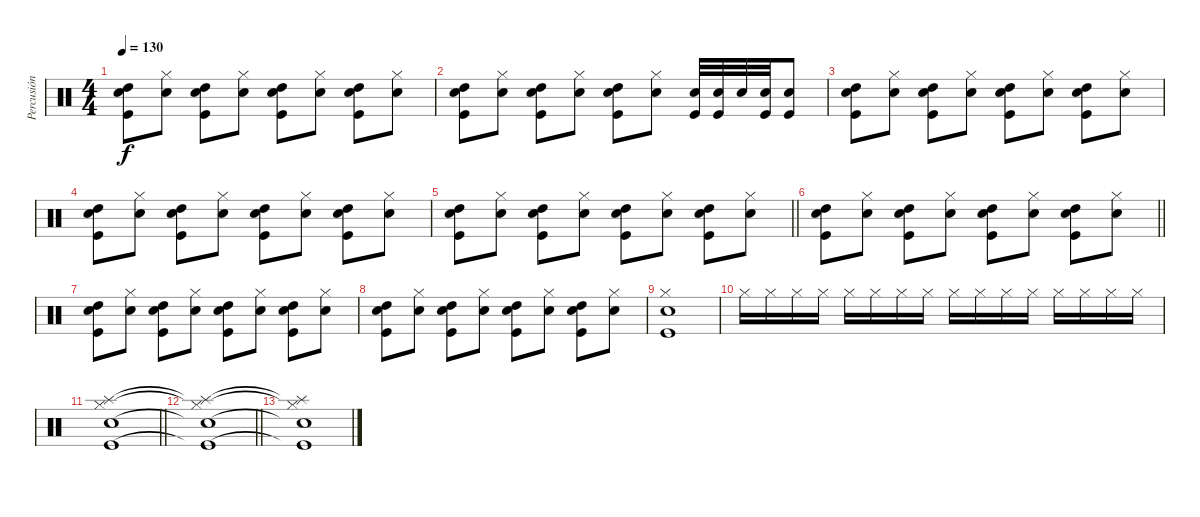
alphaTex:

\track ("Percusión" "Percusión") {instrument percussion}
\staff {score}
\articulation defaults
\ts (4 4)
\tempo 130
\clef neutral
\ks c
("High Tom (hit)" "Snare (hit) 2" "Kick (hit)").8{dy f} ("Hi-Hat (closed)" "Snare (hit) 2").8 ("High Tom (hit)" "Snare (hit) 2" "Kick (hit)").8 ("Hi-Hat (closed)" "Snare (hit) 2").8 ("High Tom (hit)" "Snare (hit) 2" "Kick (hit)").8 ("Hi-Hat (closed)" "Snare (hit) 2").8 ("High Tom (hit)" "Snare (hit) 2" "Kick (hit)").8 ("Hi-Hat (closed)" "Snare (hit) 2").8 |
("High Tom (hit)" "Snare (hit) 2" "Kick (hit)").8 ("Hi-Hat (closed)" "Snare (hit) 2").8 ("High Tom (hit)" "Snare (hit) 2" "Kick (hit)").8 ("Hi-Hat (closed)" "Snare (hit) 2").8 ("High Tom (hit)" "Snare (hit) 2" "Kick (hit)").8 ("Hi-Hat (closed)" "Snare (hit) 2").8 ("Snare (hit) 2" "Kick (hit)").32 ("Snare (hit) 2" "Kick (hit)").32 "Snare (hit) 2".32 ("Snare (hit) 2" "Kick (hit)").32 ("Snare (hit) 2" "Kick (hit)").8 |
("High Tom (hit)" "Snare (hit) 2" "Kick (hit)").8 ("Hi-Hat (closed)" "Snare (hit) 2").8 ("High Tom (hit)" "Snare (hit) 2" "Kick (hit)").8 ("Hi-Hat (closed)" "Snare (hit) 2").8 ("High Tom (hit)" "Snare (hit) 2" "Kick (hit)").8 ("Hi-Hat (closed)" "Snare (hit) 2").8 ("High Tom (hit)" "Snare (hit) 2" "Kick (hit)").8 ("Hi-Hat (closed)" "Snare (hit) 2").8 |
("High Tom (hit)" "Snare (hit) 2" "Kick (hit)").8 ("Hi-Hat (closed)" "Snare (hit) 2").8 ("High Tom (hit)" "Snare (hit) 2" "Kick (hit)").8 ("Hi-Hat (closed)" "Snare (hit) 2").8 ("High Tom (hit)" "Snare (hit) 2" "Kick (hit)").8 ("Hi-Hat (closed)" "Snare (hit) 2").8 ("High Tom (hit)" "Snare (hit) 2" "Kick (hit)").8 ("Hi-Hat (closed)" "Snare (hit) 2").8 |
\barLineRight lightlight
("High Tom (hit)" "Snare (hit) 2" "Kick (hit)").8 ("Hi-Hat (closed)" "Snare (hit) 2").8 ("High Tom (hit)" "Snare (hit) 2" "Kick (hit)").8 ("Hi-Hat (closed)" "Snare (hit) 2").8 ("High Tom (hit)" "Snare (hit) 2" "Kick (hit)").8 ("Hi-Hat (closed)" "Snare (hit) 2").8 ("High Tom (hit)" "Snare (hit) 2" "Kick (hit)").8 ("Hi-Hat (closed)" "Snare (hit) 2").8 |
\barLineRight lightlight
("High Tom (hit)" "Snare (hit) 2" "Kick (hit)").8 ("Hi-Hat (closed)" "Snare (hit) 2").8 ("High Tom (hit)" "Snare (hit) 2" "Kick (hit)").8 ("Hi-Hat (closed)" "Snare (hit) 2").8 ("High Tom (hit)" "Snare (hit) 2" "Kick (hit)").8 ("Hi-Hat (closed)" "Snare (hit) 2").8 ("High Tom (hit)" "Snare (hit) 2" "Kick (hit)").8 ("Hi-Hat (closed)" "Snare (hit) 2").8 |
("High Tom (hit)" "Snare (hit) 2" "Kick (hit)").8 ("Hi-Hat (closed)" "Snare (hit) 2").8 ("High Tom (hit)" "Snare (hit) 2" "Kick (hit)").8 ("Hi-Hat (closed)" "Snare (hit) 2").8 ("High Tom (hit)" "Snare (hit) 2" "Kick (hit)").8 ("Hi-Hat (closed)" "Snare (hit) 2").8 ("High Tom (hit)" "Snare (hit) 2" "Kick (hit)").8 ("Hi-Hat (closed)" "Snare (hit) 2").8 |
("High Tom (hit)" "Snare (hit) 2" "Kick (hit)").8 ("Hi-Hat (closed)" "Snare (hit) 2").8 ("High Tom (hit)" "Snare (hit) 2" "Kick (hit)").8 ("Hi-Hat (closed)" "Snare (hit) 2").8 ("High Tom (hit)" "Snare (hit) 2" "Kick (hit)").8 ("Hi-Hat (closed)" "Snare (hit) 2").8 ("High Tom (hit)" "Snare (hit) 2" "Kick (hit)").8 ("Hi-Hat (closed)" "Snare (hit) 2").8 |
("Hi-Hat (closed)" "Snare (hit) 2" "Kick (hit)").1 |
"Hi-Hat (closed)".16 "Hi-Hat (closed)".16 "Hi-Hat (closed)".16 "Hi-Hat (closed)".16 "Hi-Hat (closed)".16 "Hi-Hat (closed)".16 "Hi-Hat (closed)".16 "Hi-Hat (closed)".16 "Hi-Hat (closed)".16 "Hi-Hat (closed)".16 "Hi-Hat (closed)".16 "Hi-Hat (closed)".16 "Hi-Hat (closed)".16 "Hi-Hat (closed)".16 "Hi-Hat (closed)".16 "Hi-Hat (closed)".16 |
\barLineRight lightlight
("Splash (hit)" "Hi-Hat (closed)" "Snare (hit) 2" "Kick (hit)").1 |
\barLineRight lightlight
("Splash (hit)"{t} "Hi-Hat (closed)"{t} "Snare (hit) 2"{t} "Kick (hit)"{t}).1 |
("Splash (hit)"{t} "Hi-Hat (closed)"{t} "Snare (hit) 2"{t} "Kick (hit)"{t}).1
